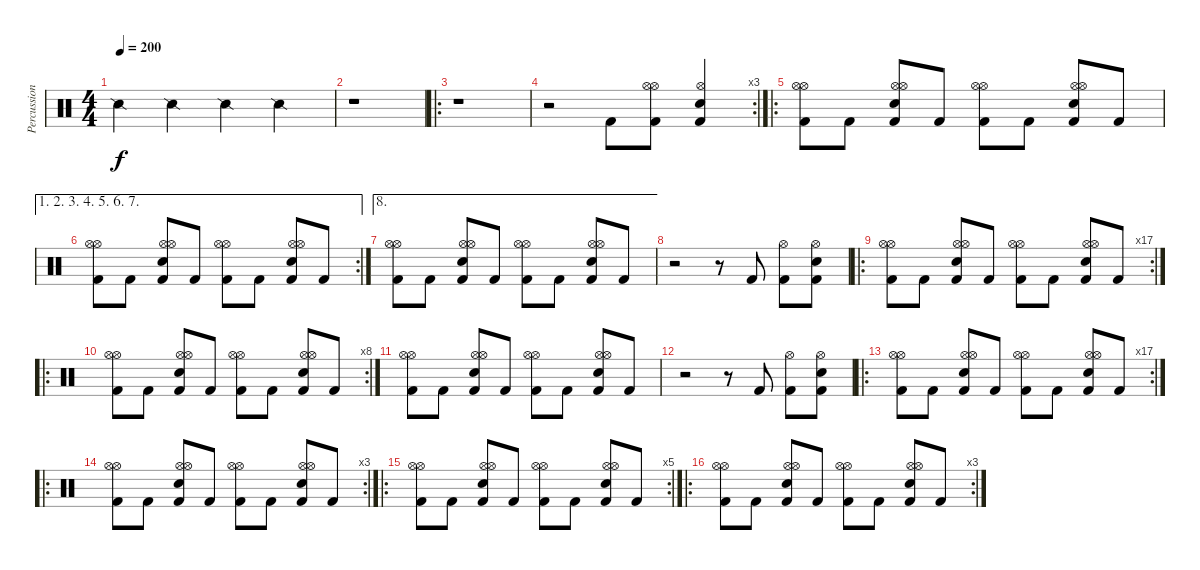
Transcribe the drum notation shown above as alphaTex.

\track ("Percussioni" "Percussion") {instrument percussion}
\staff {score}
\articulation defaults
\ts (4 4)
\tempo 200
\clef neutral
\ks c "Snare (side stick) 2".4{dy f} "Snare (side stick) 2".4 "Snare (side stick) 2".4 "Snare (side stick) 2".4
|
r.1 |
\ro
r.1 |
\rc 3
r.2 "Kick (hit) 2".8 ("Hi-Hat (open)" "Kick (hit) 2" "Hi-Hat (open)").8 ("Snare (hit) 2" "Hi-Hat (open)" "Kick (hit) 2").4 |
\ro
("Hi-Hat (open)" "Kick (hit) 2" "Hi-Hat (open)").8 "Kick (hit) 2".8 ("Snare (hit) 2" "Hi-Hat (open)" "Kick (hit) 2" "Hi-Hat (open)").8 "Kick (hit) 2".8 ("Hi-Hat (open)" "Kick (hit) 2" "Hi-Hat (open)").8 "Kick (hit) 2".8 ("Snare (hit) 2" "Hi-Hat (open)" "Kick (hit) 2" "Hi-Hat (open)").8 "Kick (hit) 2".8 |
\ae (1 2 3 4 5 6 7)
\rc 2
("Hi-Hat (open)" "Kick (hit) 2" "Hi-Hat (open)").8 "Kick (hit) 2".8 ("Snare (hit) 2" "Hi-Hat (open)" "Kick (hit) 2" "Hi-Hat (open)").8 "Kick (hit) 2".8 ("Hi-Hat (open)" "Kick (hit) 2" "Hi-Hat (open)").8 "Kick (hit) 2".8 ("Snare (hit) 2" "Hi-Hat (open)" "Kick (hit) 2" "Hi-Hat (open)").8 "Kick (hit) 2".8 |
\ae 8
("Hi-Hat (open)" "Kick (hit) 2" "Hi-Hat (open)").8 "Kick (hit) 2".8 ("Snare (hit) 2" "Hi-Hat (open)" "Kick (hit) 2" "Hi-Hat (open)").8 "Kick (hit) 2".8 ("Hi-Hat (open)" "Kick (hit) 2" "Hi-Hat (open)").8 "Kick (hit) 2".8 ("Snare (hit) 2" "Hi-Hat (open)" "Kick (hit) 2" "Hi-Hat (open)").8 "Kick (hit) 2".8 |
r.2 r.8 "Kick (hit) 2".8 ("Hi-Hat (open)" "Kick (hit) 2").8 ("Snare (hit) 2" "Hi-Hat (open)" "Kick (hit) 2").8 |
\ro
\rc 17
("Hi-Hat (open)" "Kick (hit) 2" "Hi-Hat (open)").8 "Kick (hit) 2".8 ("Snare (hit) 2" "Hi-Hat (open)" "Kick (hit) 2" "Hi-Hat (open)").8 "Kick (hit) 2".8 ("Hi-Hat (open)" "Kick (hit) 2" "Hi-Hat (open)").8 "Kick (hit) 2".8 ("Snare (hit) 2" "Hi-Hat (open)" "Kick (hit) 2" "Hi-Hat (open)").8 "Kick (hit) 2".8 |
\ro
\rc 8
("Hi-Hat (open)" "Kick (hit) 2" "Hi-Hat (open)").8 "Kick (hit) 2".8 ("Snare (hit) 2" "Hi-Hat (open)" "Kick (hit) 2" "Hi-Hat (open)").8 "Kick (hit) 2".8 ("Hi-Hat (open)" "Kick (hit) 2" "Hi-Hat (open)").8 "Kick (hit) 2".8 ("Snare (hit) 2" "Hi-Hat (open)" "Kick (hit) 2" "Hi-Hat (open)").8 "Kick (hit) 2".8 |
("Hi-Hat (open)" "Kick (hit) 2" "Hi-Hat (open)").8 "Kick (hit) 2".8 ("Snare (hit) 2" "Hi-Hat (open)" "Kick (hit) 2" "Hi-Hat (open)").8 "Kick (hit) 2".8 ("Hi-Hat (open)" "Kick (hit) 2" "Hi-Hat (open)").8 "Kick (hit) 2".8 ("Snare (hit) 2" "Hi-Hat (open)" "Kick (hit) 2" "Hi-Hat (open)").8 "Kick (hit) 2".8 |
r.2 r.8 "Kick (hit) 2".8 ("Hi-Hat (open)" "Kick (hit) 2").8 ("Snare (hit) 2" "Hi-Hat (open)" "Kick (hit) 2").8 |
\ro
\rc 17
("Hi-Hat (open)" "Kick (hit) 2" "Hi-Hat (open)").8 "Kick (hit) 2".8 ("Snare (hit) 2" "Hi-Hat (open)" "Kick (hit) 2" "Hi-Hat (open)").8 "Kick (hit) 2".8 ("Hi-Hat (open)" "Kick (hit) 2" "Hi-Hat (open)").8 "Kick (hit) 2".8 ("Snare (hit) 2" "Hi-Hat (open)" "Kick (hit) 2" "Hi-Hat (open)").8 "Kick (hit) 2".8 |
\ro
\rc 3
("Hi-Hat (open)" "Kick (hit) 2" "Hi-Hat (open)").8 "Kick (hit) 2".8 ("Snare (hit) 2" "Hi-Hat (open)" "Kick (hit) 2" "Hi-Hat (open)").8 "Kick (hit) 2".8 ("Hi-Hat (open)" "Kick (hit) 2" "Hi-Hat (open)").8 "Kick (hit) 2".8 ("Snare (hit) 2" "Hi-Hat (open)" "Kick (hit) 2" "Hi-Hat (open)").8 "Kick (hit) 2".8 |
\ro
\rc 5
("Hi-Hat (open)" "Kick (hit) 2" "Hi-Hat (open)").8 "Kick (hit) 2".8 ("Snare (hit) 2" "Hi-Hat (open)" "Kick (hit) 2" "Hi-Hat (open)").8 "Kick (hit) 2".8 ("Hi-Hat (open)" "Kick (hit) 2" "Hi-Hat (open)").8 "Kick (hit) 2".8 ("Snare (hit) 2" "Hi-Hat (open)" "Kick (hit) 2" "Hi-Hat (open)").8 "Kick (hit) 2".8 |
\ro
\rc 3
("Hi-Hat (open)" "Kick (hit) 2" "Hi-Hat (open)").8 "Kick (hit) 2".8 ("Snare (hit) 2" "Hi-Hat (open)" "Kick (hit) 2" "Hi-Hat (open)").8 "Kick (hit) 2".8 ("Hi-Hat (open)" "Kick (hit) 2" "Hi-Hat (open)").8 "Kick (hit) 2".8 ("Snare (hit) 2" "Hi-Hat (open)" "Kick (hit) 2" "Hi-Hat (open)").8 "Kick (hit) 2".8
